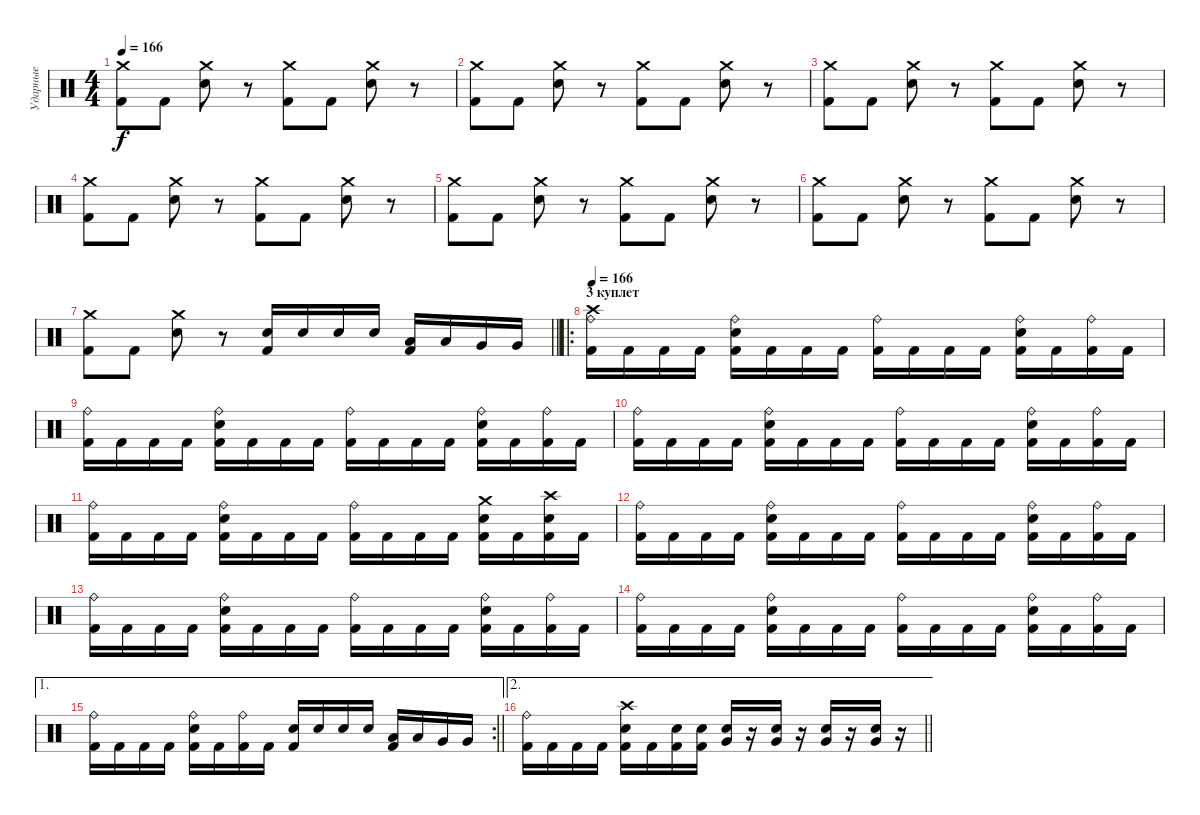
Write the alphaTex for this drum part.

\track ("Ударные" "Ударные") {instrument percussion}
\staff {score}
\articulation defaults
\ts (4 4)
\tempo 166
\clef neutral
\ks c
("Crash medium (hit)" "Kick (hit) 2").8{dy f} "Kick (hit) 2".8 ("Crash medium (hit)" "Snare (hit) 2").8 r.8 ("Crash medium (hit)" "Kick (hit) 2").8 "Kick (hit) 2".8 ("Crash medium (hit)" "Snare (hit) 2").8 r.8 |
("Crash medium (hit)" "Kick (hit) 2").8 "Kick (hit) 2".8 ("Crash medium (hit)" "Snare (hit) 2").8 r.8 ("Crash medium (hit)" "Kick (hit) 2").8 "Kick (hit) 2".8 ("Crash medium (hit)" "Snare (hit) 2").8 r.8 |
("Crash medium (hit)" "Kick (hit) 2").8 "Kick (hit) 2".8 ("Crash medium (hit)" "Snare (hit) 2").8 r.8 ("Crash medium (hit)" "Kick (hit) 2").8 "Kick (hit) 2".8 ("Crash medium (hit)" "Snare (hit) 2").8 r.8 |
("Crash medium (hit)" "Kick (hit) 2").8 "Kick (hit) 2".8 ("Crash medium (hit)" "Snare (hit) 2").8 r.8 ("Crash medium (hit)" "Kick (hit) 2").8 "Kick (hit) 2".8 ("Crash medium (hit)" "Snare (hit) 2").8 r.8 |
("Crash medium (hit)" "Kick (hit) 2").8 "Kick (hit) 2".8 ("Crash medium (hit)" "Snare (hit) 2").8 r.8 ("Crash medium (hit)" "Kick (hit) 2").8 "Kick (hit) 2".8 ("Crash medium (hit)" "Snare (hit) 2").8 r.8 |
("Crash medium (hit)" "Kick (hit) 2").8 "Kick (hit) 2".8 ("Crash medium (hit)" "Snare (hit) 2").8 r.8 ("Crash medium (hit)" "Kick (hit) 2").8 "Kick (hit) 2".8 ("Crash medium (hit)" "Snare (hit) 2").8 r.8 |
\barLineRight lightlight
("Crash medium (hit)" "Kick (hit) 2").8 "Kick (hit) 2".8 ("Crash medium (hit)" "Snare (hit) 2").8 r.8 ("Snare (hit) 2" "Kick (hit) 2").16 "Snare (hit) 2".16 "Snare (hit) 2".16 "Snare (hit) 2".16 ("Low Tom (hit)" "Kick (hit) 2").16 "Low Tom (hit)".16 "Very Low Tom (hit)".16 "Very Low Tom (hit)".16 |
\ro
\section ("" "3 куплет")
\tempo 166
("Crash high (hit)" "Ride (bell)" "Kick (hit) 2").16 "Kick (hit) 2".16 "Kick (hit) 2".16 "Kick (hit) 2".16 ("Ride (bell)" "Snare (hit) 2" "Kick (hit) 2").16 "Kick (hit) 2".16 "Kick (hit) 2".16 "Kick (hit) 2".16 ("Ride (bell)" "Kick (hit) 2").16 "Kick (hit) 2".16 "Kick (hit) 2".16 "Kick (hit) 2".16 ("Ride (bell)" "Snare (hit) 2" "Kick (hit) 2").16 "Kick (hit) 2".16 ("Ride (bell)" "Kick (hit) 2").16 "Kick (hit) 2".16 |
("Ride (bell)" "Kick (hit) 2").16 "Kick (hit) 2".16 "Kick (hit) 2".16 "Kick (hit) 2".16 ("Ride (bell)" "Snare (hit) 2" "Kick (hit) 2").16 "Kick (hit) 2".16 "Kick (hit) 2".16 "Kick (hit) 2".16 ("Ride (bell)" "Kick (hit) 2").16 "Kick (hit) 2".16 "Kick (hit) 2".16 "Kick (hit) 2".16 ("Ride (bell)" "Snare (hit) 2" "Kick (hit) 2").16 "Kick (hit) 2".16 ("Ride (bell)" "Kick (hit) 2").16 "Kick (hit) 2".16 |
("Ride (bell)" "Kick (hit) 2").16 "Kick (hit) 2".16 "Kick (hit) 2".16 "Kick (hit) 2".16 ("Ride (bell)" "Snare (hit) 2" "Kick (hit) 2").16 "Kick (hit) 2".16 "Kick (hit) 2".16 "Kick (hit) 2".16 ("Ride (bell)" "Kick (hit) 2").16 "Kick (hit) 2".16 "Kick (hit) 2".16 "Kick (hit) 2".16 ("Ride (bell)" "Snare (hit) 2" "Kick (hit) 2").16 "Kick (hit) 2".16 ("Ride (bell)" "Kick (hit) 2").16 "Kick (hit) 2".16 |
("Ride (bell)" "Kick (hit) 2").16 "Kick (hit) 2".16 "Kick (hit) 2".16 "Kick (hit) 2".16 ("Ride (bell)" "Snare (hit) 2" "Kick (hit) 2").16 "Kick (hit) 2".16 "Kick (hit) 2".16 "Kick (hit) 2".16 ("Ride (bell)" "Kick (hit) 2").16 "Kick (hit) 2".16 "Kick (hit) 2".16 "Kick (hit) 2".16 ("Crash medium (hit)" "Snare (hit) 2" "Kick (hit) 2").16 "Kick (hit) 2".16 ("Crash high (hit)" "Snare (hit) 2" "Kick (hit) 2").16 "Kick (hit) 2".16 |
("Ride (bell)" "Kick (hit) 2").16 "Kick (hit) 2".16 "Kick (hit) 2".16 "Kick (hit) 2".16 ("Ride (bell)" "Snare (hit) 2" "Kick (hit) 2").16 "Kick (hit) 2".16 "Kick (hit) 2".16 "Kick (hit) 2".16 ("Ride (bell)" "Kick (hit) 2").16 "Kick (hit) 2".16 "Kick (hit) 2".16 "Kick (hit) 2".16 ("Ride (bell)" "Snare (hit) 2" "Kick (hit) 2").16 "Kick (hit) 2".16 ("Ride (bell)" "Kick (hit) 2").16 "Kick (hit) 2".16 |
("Ride (bell)" "Kick (hit) 2").16 "Kick (hit) 2".16 "Kick (hit) 2".16 "Kick (hit) 2".16 ("Ride (bell)" "Snare (hit) 2" "Kick (hit) 2").16 "Kick (hit) 2".16 "Kick (hit) 2".16 "Kick (hit) 2".16 ("Ride (bell)" "Kick (hit) 2").16 "Kick (hit) 2".16 "Kick (hit) 2".16 "Kick (hit) 2".16 ("Ride (bell)" "Snare (hit) 2" "Kick (hit) 2").16 "Kick (hit) 2".16 ("Ride (bell)" "Kick (hit) 2").16 "Kick (hit) 2".16 |
("Ride (bell)" "Kick (hit) 2").16 "Kick (hit) 2".16 "Kick (hit) 2".16 "Kick (hit) 2".16 ("Ride (bell)" "Snare (hit) 2" "Kick (hit) 2").16 "Kick (hit) 2".16 "Kick (hit) 2".16 "Kick (hit) 2".16 ("Ride (bell)" "Kick (hit) 2").16 "Kick (hit) 2".16 "Kick (hit) 2".16 "Kick (hit) 2".16 ("Ride (bell)" "Snare (hit) 2" "Kick (hit) 2").16 "Kick (hit) 2".16 ("Ride (bell)" "Kick (hit) 2").16 "Kick (hit) 2".16 |
\ae 1
\rc 2
\barLineRight lightlight
("Ride (bell)" "Kick (hit) 2").16 "Kick (hit) 2".16 "Kick (hit) 2".16 "Kick (hit) 2".16 ("Ride (bell)" "Snare (hit) 2" "Kick (hit) 2").16 "Kick (hit) 2".16 ("Ride (bell)" "Kick (hit) 2").16 "Kick (hit) 2".16 ("Snare (hit) 2" "Kick (hit) 2").16 "Snare (hit) 2".16 "Snare (hit) 2".16 "Snare (hit) 2".16 ("Low Tom (hit)" "Kick (hit) 2").16 "Low Tom (hit)".16 "Very Low Tom (hit)".16 "Very Low Tom (hit)".16 |
\ae 2
\barLineRight lightlight
("Ride (bell)" "Kick (hit) 2").16 "Kick (hit) 2".16 "Kick (hit) 2".16 "Kick (hit) 2".16 ("Crash high (hit)" "Snare (hit) 2" "Kick (hit) 2").16 "Kick (hit) 2".16 ("Snare (hit) 2" "Kick (hit) 2").16 ("Snare (hit) 2" "Kick (hit) 2").16 ("Very Low Tom (hit)" "Snare (hit) 2").16 r.16 ("Very Low Tom (hit)" "Snare (hit) 2").16 r.16 ("Very Low Tom (hit)" "Snare (hit) 2").16 r.16 ("Very Low Tom (hit)" "Snare (hit) 2").16 r.16
